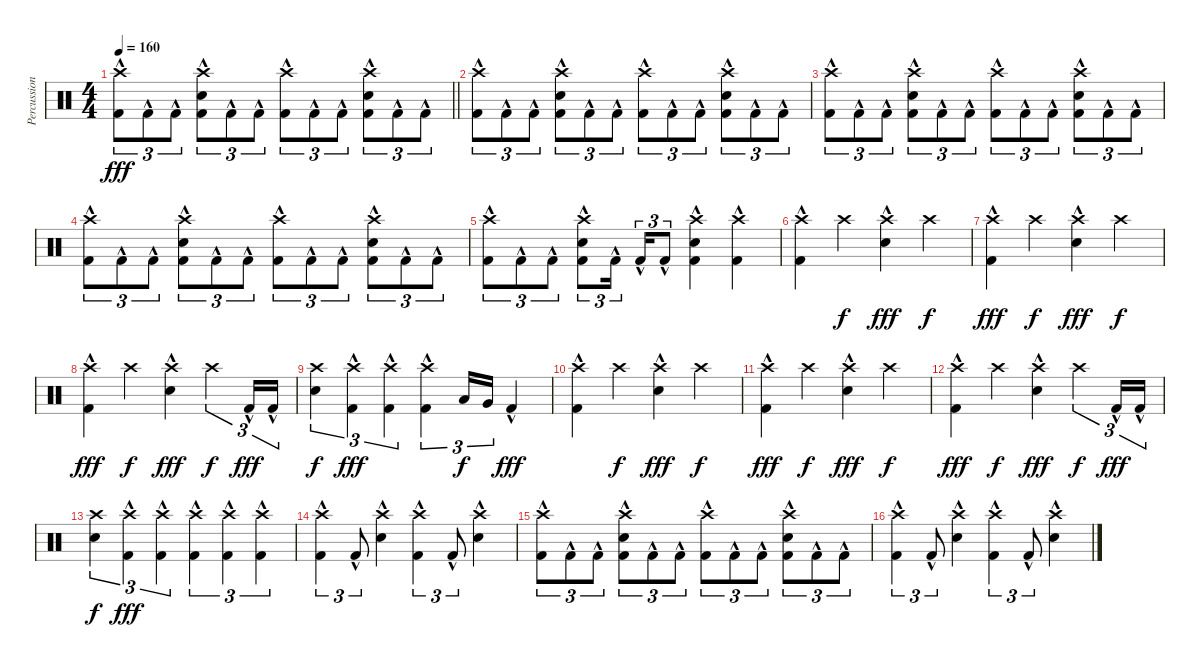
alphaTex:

\track ("Percussion" "Percussion") {instrument percussion}
\staff {score}
\articulation defaults
\ts (4 4)
\tempo 160
\clef neutral
\barLineRight lightlight
\ks c
("Crash high (hit)" "Kick (hit) 2"{hac}).8{tu (3 2) dy fff} "Kick (hit) 2"{hac}.8{tu (3 2)} "Kick (hit) 2"{hac}.8{tu (3 2)} ("Crash high (hit)" "Electric Snare (hit)"{hac} "Kick (hit) 2"{hac}).8{tu (3 2)} "Kick (hit) 2"{hac}.8{tu (3 2)} "Kick (hit) 2"{hac}.8{tu (3 2)} ("Crash high (hit)" "Kick (hit) 2"{hac}).8{tu (3 2)} "Kick (hit) 2"{hac}.8{tu (3 2)} "Kick (hit) 2"{hac}.8{tu (3 2)} ("Crash high (hit)" "Electric Snare (hit)"{hac} "Kick (hit) 2"{hac}).8{tu (3 2)} "Kick (hit) 2"{hac}.8{tu (3 2)} "Kick (hit) 2"{hac}.8{tu (3 2)} |
("Crash high (hit)" "Kick (hit) 2"{hac}).8{tu (3 2)} "Kick (hit) 2"{hac}.8{tu (3 2)} "Kick (hit) 2"{hac}.8{tu (3 2)} ("Crash high (hit)" "Electric Snare (hit)"{hac} "Kick (hit) 2"{hac}).8{tu (3 2)} "Kick (hit) 2"{hac}.8{tu (3 2)} "Kick (hit) 2"{hac}.8{tu (3 2)} ("Crash high (hit)" "Kick (hit) 2"{hac}).8{tu (3 2)} "Kick (hit) 2"{hac}.8{tu (3 2)} "Kick (hit) 2"{hac}.8{tu (3 2)} ("Crash high (hit)" "Electric Snare (hit)"{hac} "Kick (hit) 2"{hac}).8{tu (3 2)} "Kick (hit) 2"{hac}.8{tu (3 2)} "Kick (hit) 2"{hac}.8{tu (3 2)} |
("Crash high (hit)" "Kick (hit) 2"{hac}).8{tu (3 2)} "Kick (hit) 2"{hac}.8{tu (3 2)} "Kick (hit) 2"{hac}.8{tu (3 2)} ("Crash high (hit)" "Electric Snare (hit)"{hac} "Kick (hit) 2"{hac}).8{tu (3 2)} "Kick (hit) 2"{hac}.8{tu (3 2)} "Kick (hit) 2"{hac}.8{tu (3 2)} ("Crash high (hit)" "Kick (hit) 2"{hac}).8{tu (3 2)} "Kick (hit) 2"{hac}.8{tu (3 2)} "Kick (hit) 2"{hac}.8{tu (3 2)} ("Crash high (hit)" "Electric Snare (hit)"{hac} "Kick (hit) 2"{hac}).8{tu (3 2)} "Kick (hit) 2"{hac}.8{tu (3 2)} "Kick (hit) 2"{hac}.8{tu (3 2)} |
("Crash high (hit)" "Kick (hit) 2"{hac}).8{tu (3 2)} "Kick (hit) 2"{hac}.8{tu (3 2)} "Kick (hit) 2"{hac}.8{tu (3 2)} ("Crash high (hit)" "Electric Snare (hit)"{hac} "Kick (hit) 2"{hac}).8{tu (3 2)} "Kick (hit) 2"{hac}.8{tu (3 2)} "Kick (hit) 2"{hac}.8{tu (3 2)} ("Crash high (hit)" "Kick (hit) 2"{hac}).8{tu (3 2)} "Kick (hit) 2"{hac}.8{tu (3 2)} "Kick (hit) 2"{hac}.8{tu (3 2)} ("Crash high (hit)" "Electric Snare (hit)"{hac} "Kick (hit) 2"{hac}).8{tu (3 2)} "Kick (hit) 2"{hac}.8{tu (3 2)} "Kick (hit) 2"{hac}.8{tu (3 2)} |
("Crash high (hit)" "Kick (hit) 2"{hac}).8{tu (3 2)} "Kick (hit) 2"{hac}.8{tu (3 2)} "Kick (hit) 2"{hac}.8{tu (3 2)} ("Crash high (hit)" "Electric Snare (hit)"{hac} "Kick (hit) 2"{hac}).8{tu (3 2)} "Kick (hit) 2"{hac}.16{tu (3 2)} "Kick (hit) 2"{hac}.16{tu (3 2)} "Kick (hit) 2"{hac}.8{tu (3 2)} ("Crash high (hit)" "Electric Snare (hit)" "Kick (hit) 2"{hac}).4 ("Crash high (hit)" "Kick (hit) 2"{hac}).4 |
("Crash high (hit)" "Kick (hit) 2"{hac}).4 "Crash high (hit)".4{dy f} ("Crash high (hit)" "Electric Snare (hit)"{hac}).4{dy fff} "Crash high (hit)".4{dy f} |
("Crash high (hit)" "Kick (hit) 2"{hac}).4{dy fff} "Crash high (hit)".4{dy f} ("Crash high (hit)" "Electric Snare (hit)"{hac}).4{dy fff} "Crash high (hit)".4{dy f} |
("Crash high (hit)" "Kick (hit) 2"{hac}).4{dy fff} "Crash high (hit)".4{dy f} ("Crash high (hit)" "Electric Snare (hit)"{hac}).4{dy fff} "Crash high (hit)".4{tu (3 2) dy f} "Kick (hit) 2"{hac}.16{tu (3 2) dy fff} "Kick (hit) 2"{hac}.16{tu (3 2)} |
("Crash high (hit)" "Electric Snare (hit)").4{tu (3 2) dy f} ("Crash high (hit)" "Kick (hit) 2"{hac}).4{tu (3 2) dy fff} ("Crash high (hit)" "Kick (hit) 2"{hac}).4{tu (3 2)} ("Crash high (hit)" "Kick (hit) 2"{hac}).4{tu (3 2)} "Low Tom (hit)".16{tu (3 2) dy f} "Very Low Tom (hit)".16{tu (3 2)} "Kick (hit) 2"{hac}.4{dy fff} |
("Crash high (hit)" "Kick (hit) 2"{hac}).4 "Crash high (hit)".4{dy f} ("Crash high (hit)" "Electric Snare (hit)"{hac}).4{dy fff} "Crash high (hit)".4{dy f} |
("Crash high (hit)" "Kick (hit) 2"{hac}).4{dy fff} "Crash high (hit)".4{dy f} ("Crash high (hit)" "Electric Snare (hit)"{hac}).4{dy fff} "Crash high (hit)".4{dy f} |
("Crash high (hit)" "Kick (hit) 2"{hac}).4{dy fff} "Crash high (hit)".4{dy f} ("Crash high (hit)" "Electric Snare (hit)"{hac}).4{dy fff} "Crash high (hit)".4{tu (3 2) dy f} "Kick (hit) 2"{hac}.16{tu (3 2) dy fff} "Kick (hit) 2"{hac}.16{tu (3 2)} |
("Crash high (hit)" "Electric Snare (hit)").4{tu (3 2) dy f} ("Crash high (hit)" "Kick (hit) 2"{hac}).4{tu (3 2) dy fff} ("Crash high (hit)" "Kick (hit) 2"{hac}).4{tu (3 2)} ("Crash high (hit)" "Kick (hit) 2"{hac}).4{tu (3 2)} ("Crash high (hit)" "Kick (hit) 2"{hac}).4{tu (3 2)} ("Crash high (hit)" "Kick (hit) 2"{hac}).4{tu (3 2)} |
("Crash high (hit)" "Kick (hit) 2"{hac}).4{tu (3 2)} "Kick (hit) 2"{hac}.8{tu (3 2)} ("Crash high (hit)" "Electric Snare (hit)"{hac}).4 ("Crash high (hit)" "Kick (hit) 2"{hac}).4{tu (3 2)} "Kick (hit) 2"{hac}.8{tu (3 2)} ("Crash high (hit)" "Electric Snare (hit)"{hac}).4 |
("Crash high (hit)" "Kick (hit) 2"{hac}).8{tu (3 2)} "Kick (hit) 2"{hac}.8{tu (3 2)} "Kick (hit) 2"{hac}.8{tu (3 2)} ("Crash high (hit)" "Electric Snare (hit)" "Kick (hit) 2"{hac}).8{tu (3 2)} "Kick (hit) 2"{hac}.8{tu (3 2)} "Kick (hit) 2"{hac}.8{tu (3 2)} ("Crash high (hit)" "Kick (hit) 2"{hac}).8{tu (3 2)} "Kick (hit) 2"{hac}.8{tu (3 2)} "Kick (hit) 2"{hac}.8{tu (3 2)} ("Crash high (hit)" "Electric Snare (hit)" "Kick (hit) 2"{hac}).8{tu (3 2)} "Kick (hit) 2"{hac}.8{tu (3 2)} "Kick (hit) 2"{hac}.8{tu (3 2)} |
("Crash high (hit)" "Kick (hit) 2"{hac}).4{tu (3 2)} "Kick (hit) 2"{hac}.8{tu (3 2)} ("Crash high (hit)" "Electric Snare (hit)"{hac}).4 ("Crash high (hit)" "Kick (hit) 2"{hac}).4{tu (3 2)} "Kick (hit) 2"{hac}.8{tu (3 2)} ("Crash high (hit)" "Electric Snare (hit)"{hac}).4
